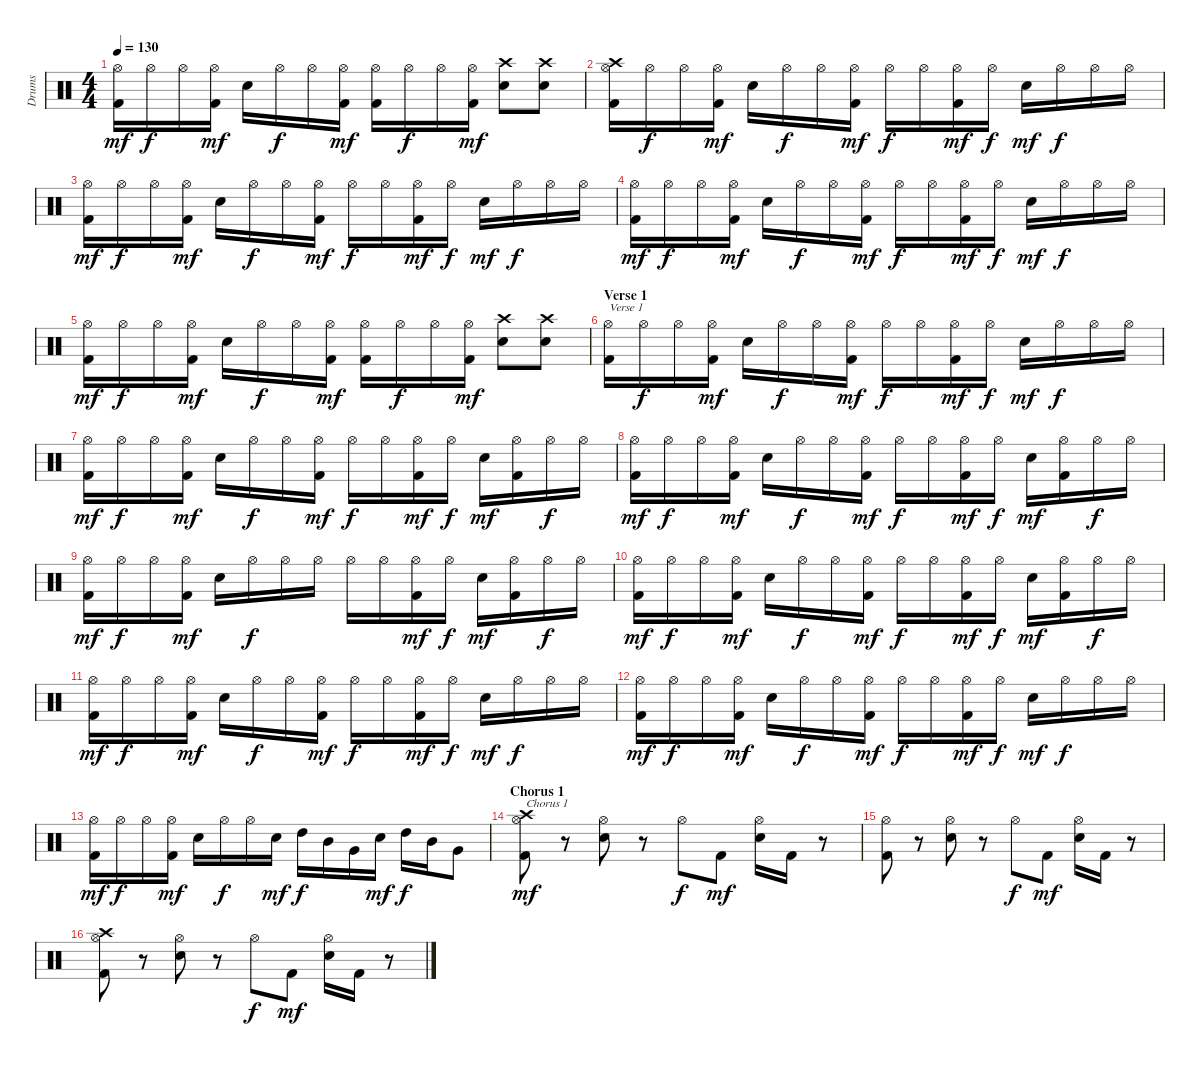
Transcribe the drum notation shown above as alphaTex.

\track ("Drums" "Drums") {instrument percussion}
\staff {score}
\articulation defaults
\ts (4 4)
\tempo 130
\clef neutral
\ks c
("Hi-Hat (open)" "Kick (hit) 2").16{dy mf} "Hi-Hat (open)".16{dy f} "Hi-Hat (open)".16 ("Hi-Hat (open)" "Kick (hit) 2").16{dy mf} "Electric Snare (hit)".16 "Hi-Hat (open)".16{dy f} "Hi-Hat (open)".16 ("Hi-Hat (open)" "Kick (hit) 2").16{dy mf} ("Hi-Hat (open)" "Kick (hit) 2").16 "Hi-Hat (open)".16{dy f} "Hi-Hat (open)".16 ("Hi-Hat (open)" "Kick (hit) 2").16{dy mf} ("Crash high (hit)" "Electric Snare (hit)").8 ("Crash high (hit)" "Electric Snare (hit)").8 |
("Crash high (hit)" "Hi-Hat (open)" "Kick (hit) 2").16 "Hi-Hat (open)".16{dy f} "Hi-Hat (open)".16 ("Hi-Hat (open)" "Kick (hit) 2").16{dy mf} "Electric Snare (hit)".16 "Hi-Hat (open)".16{dy f} "Hi-Hat (open)".16 ("Hi-Hat (open)" "Kick (hit) 2").16{dy mf} "Hi-Hat (open)".16{dy f} "Hi-Hat (open)".16 ("Hi-Hat (open)" "Kick (hit) 2").16{dy mf} "Hi-Hat (open)".16{dy f} "Electric Snare (hit)".16{dy mf} "Hi-Hat (open)".16{dy f} "Hi-Hat (open)".16 "Hi-Hat (open)".16 |
("Hi-Hat (open)" "Kick (hit) 2").16{dy mf} "Hi-Hat (open)".16{dy f} "Hi-Hat (open)".16 ("Hi-Hat (open)" "Kick (hit) 2").16{dy mf} "Electric Snare (hit)".16 "Hi-Hat (open)".16{dy f} "Hi-Hat (open)".16 ("Hi-Hat (open)" "Kick (hit) 2").16{dy mf} "Hi-Hat (open)".16{dy f} "Hi-Hat (open)".16 ("Hi-Hat (open)" "Kick (hit) 2").16{dy mf} "Hi-Hat (open)".16{dy f} "Electric Snare (hit)".16{dy mf} "Hi-Hat (open)".16{dy f} "Hi-Hat (open)".16 "Hi-Hat (open)".16 |
("Hi-Hat (open)" "Kick (hit) 2").16{dy mf} "Hi-Hat (open)".16{dy f} "Hi-Hat (open)".16 ("Hi-Hat (open)" "Kick (hit) 2").16{dy mf} "Electric Snare (hit)".16 "Hi-Hat (open)".16{dy f} "Hi-Hat (open)".16 ("Hi-Hat (open)" "Kick (hit) 2").16{dy mf} "Hi-Hat (open)".16{dy f} "Hi-Hat (open)".16 ("Hi-Hat (open)" "Kick (hit) 2").16{dy mf} "Hi-Hat (open)".16{dy f} "Electric Snare (hit)".16{dy mf} "Hi-Hat (open)".16{dy f} "Hi-Hat (open)".16 "Hi-Hat (open)".16 |
("Hi-Hat (open)" "Kick (hit) 2").16{dy mf} "Hi-Hat (open)".16{dy f} "Hi-Hat (open)".16 ("Hi-Hat (open)" "Kick (hit) 2").16{dy mf} "Electric Snare (hit)".16 "Hi-Hat (open)".16{dy f} "Hi-Hat (open)".16 ("Hi-Hat (open)" "Kick (hit) 2").16{dy mf} ("Hi-Hat (open)" "Kick (hit) 2").16 "Hi-Hat (open)".16{dy f} "Hi-Hat (open)".16 ("Hi-Hat (open)" "Kick (hit) 2").16{dy mf} ("Crash high (hit)" "Electric Snare (hit)").8 ("Crash high (hit)" "Electric Snare (hit)").8 |
\section ("" "Verse 1")
("Hi-Hat (open)" "Kick (hit) 2").16{txt "Verse 1"} "Hi-Hat (open)".16{dy f} "Hi-Hat (open)".16 ("Hi-Hat (open)" "Kick (hit) 2").16{dy mf} "Electric Snare (hit)".16 "Hi-Hat (open)".16{dy f} "Hi-Hat (open)".16 ("Hi-Hat (open)" "Kick (hit) 2").16{dy mf} "Hi-Hat (open)".16{dy f} "Hi-Hat (open)".16 ("Hi-Hat (open)" "Kick (hit) 2").16{dy mf} "Hi-Hat (open)".16{dy f} "Electric Snare (hit)".16{dy mf} "Hi-Hat (open)".16{dy f} "Hi-Hat (open)".16 "Hi-Hat (open)".16 |
("Hi-Hat (open)" "Kick (hit) 2").16{dy mf} "Hi-Hat (open)".16{dy f} "Hi-Hat (open)".16 ("Hi-Hat (open)" "Kick (hit) 2").16{dy mf} "Electric Snare (hit)".16 "Hi-Hat (open)".16{dy f} "Hi-Hat (open)".16 ("Hi-Hat (open)" "Kick (hit) 2").16{dy mf} "Hi-Hat (open)".16{dy f} "Hi-Hat (open)".16 ("Hi-Hat (open)" "Kick (hit) 2").16{dy mf} "Hi-Hat (open)".16{dy f} "Electric Snare (hit)".16{dy mf} ("Hi-Hat (open)" "Kick (hit) 2").16 "Hi-Hat (open)".16{dy f} "Hi-Hat (open)".16 |
("Hi-Hat (open)" "Kick (hit) 2").16{dy mf} "Hi-Hat (open)".16{dy f} "Hi-Hat (open)".16 ("Hi-Hat (open)" "Kick (hit) 2").16{dy mf} "Electric Snare (hit)".16 "Hi-Hat (open)".16{dy f} "Hi-Hat (open)".16 ("Hi-Hat (open)" "Kick (hit) 2").16{dy mf} "Hi-Hat (open)".16{dy f} "Hi-Hat (open)".16 ("Hi-Hat (open)" "Kick (hit) 2").16{dy mf} "Hi-Hat (open)".16{dy f} "Electric Snare (hit)".16{dy mf} ("Hi-Hat (open)" "Kick (hit) 2").16 "Hi-Hat (open)".16{dy f} "Hi-Hat (open)".16 |
("Hi-Hat (open)" "Kick (hit) 2").16{dy mf} "Hi-Hat (open)".16{dy f} "Hi-Hat (open)".16 ("Hi-Hat (open)" "Kick (hit) 2").16{dy mf} "Electric Snare (hit)".16 "Hi-Hat (open)".16{dy f} "Hi-Hat (open)".16 "Hi-Hat (open)".16 "Hi-Hat (open)".16 "Hi-Hat (open)".16 ("Hi-Hat (open)" "Kick (hit) 2").16{dy mf} "Hi-Hat (open)".16{dy f} "Electric Snare (hit)".16{dy mf} ("Hi-Hat (open)" "Kick (hit) 2").16 "Hi-Hat (open)".16{dy f} "Hi-Hat (open)".16 |
("Hi-Hat (open)" "Kick (hit) 2").16{dy mf} "Hi-Hat (open)".16{dy f} "Hi-Hat (open)".16 ("Hi-Hat (open)" "Kick (hit) 2").16{dy mf} "Electric Snare (hit)".16 "Hi-Hat (open)".16{dy f} "Hi-Hat (open)".16 ("Hi-Hat (open)" "Kick (hit) 2").16{dy mf} "Hi-Hat (open)".16{dy f} "Hi-Hat (open)".16 ("Hi-Hat (open)" "Kick (hit) 2").16{dy mf} "Hi-Hat (open)".16{dy f} "Electric Snare (hit)".16{dy mf} ("Hi-Hat (open)" "Kick (hit) 2").16 "Hi-Hat (open)".16{dy f} "Hi-Hat (open)".16 |
("Hi-Hat (open)" "Kick (hit) 2").16{dy mf} "Hi-Hat (open)".16{dy f} "Hi-Hat (open)".16 ("Hi-Hat (open)" "Kick (hit) 2").16{dy mf} "Electric Snare (hit)".16 "Hi-Hat (open)".16{dy f} "Hi-Hat (open)".16 ("Hi-Hat (open)" "Kick (hit) 2").16{dy mf} "Hi-Hat (open)".16{dy f} "Hi-Hat (open)".16 ("Hi-Hat (open)" "Kick (hit) 2").16{dy mf} "Hi-Hat (open)".16{dy f} "Electric Snare (hit)".16{dy mf} "Hi-Hat (open)".16{dy f} "Hi-Hat (open)".16 "Hi-Hat (open)".16 |
("Hi-Hat (open)" "Kick (hit) 2").16{dy mf} "Hi-Hat (open)".16{dy f} "Hi-Hat (open)".16 ("Hi-Hat (open)" "Kick (hit) 2").16{dy mf} "Electric Snare (hit)".16 "Hi-Hat (open)".16{dy f} "Hi-Hat (open)".16 ("Hi-Hat (open)" "Kick (hit) 2").16{dy mf} "Hi-Hat (open)".16{dy f} "Hi-Hat (open)".16 ("Hi-Hat (open)" "Kick (hit) 2").16{dy mf} "Hi-Hat (open)".16{dy f} "Electric Snare (hit)".16{dy mf} "Hi-Hat (open)".16{dy f} "Hi-Hat (open)".16 "Hi-Hat (open)".16 |
("Hi-Hat (open)" "Kick (hit) 2").16{dy mf} "Hi-Hat (open)".16{dy f} "Hi-Hat (open)".16 ("Hi-Hat (open)" "Kick (hit) 2").16{dy mf} "Electric Snare (hit)".16 "Hi-Hat (open)".16{dy f} "Hi-Hat (open)".16 "Electric Snare (hit)".16{dy mf} "High Tom (hit)".16{dy f} "Mid Tom (hit)".16 "Very Low Tom (hit)".16 "Electric Snare (hit)".16{dy mf} "High Tom (hit)".16{dy f} "Mid Tom (hit)".16 "Very Low Tom (hit)".8 |
\section ("" "Chorus 1")
("Crash high (hit)" "Hi-Hat (open)" "Kick (hit) 2").8{txt "Chorus 1" dy mf} r.8 ("Hi-Hat (open)" "Electric Snare (hit)").8 r.8 "Hi-Hat (open)".8{dy f} "Kick (hit) 2".8{dy mf} ("Hi-Hat (open)" "Electric Snare (hit)").16 "Kick (hit) 2".16 r.8 |
("Hi-Hat (open)" "Kick (hit) 2").8 r.8 ("Hi-Hat (open)" "Electric Snare (hit)").8 r.8 "Hi-Hat (open)".8{dy f} "Kick (hit) 2".8{dy mf} ("Hi-Hat (open)" "Electric Snare (hit)").16 "Kick (hit) 2".16 r.8 |
("Crash high (hit)" "Hi-Hat (open)" "Kick (hit) 2").8 r.8 ("Hi-Hat (open)" "Electric Snare (hit)").8 r.8 "Hi-Hat (open)".8{dy f} "Kick (hit) 2".8{dy mf} ("Hi-Hat (open)" "Electric Snare (hit)").16 "Kick (hit) 2".16 r.8
